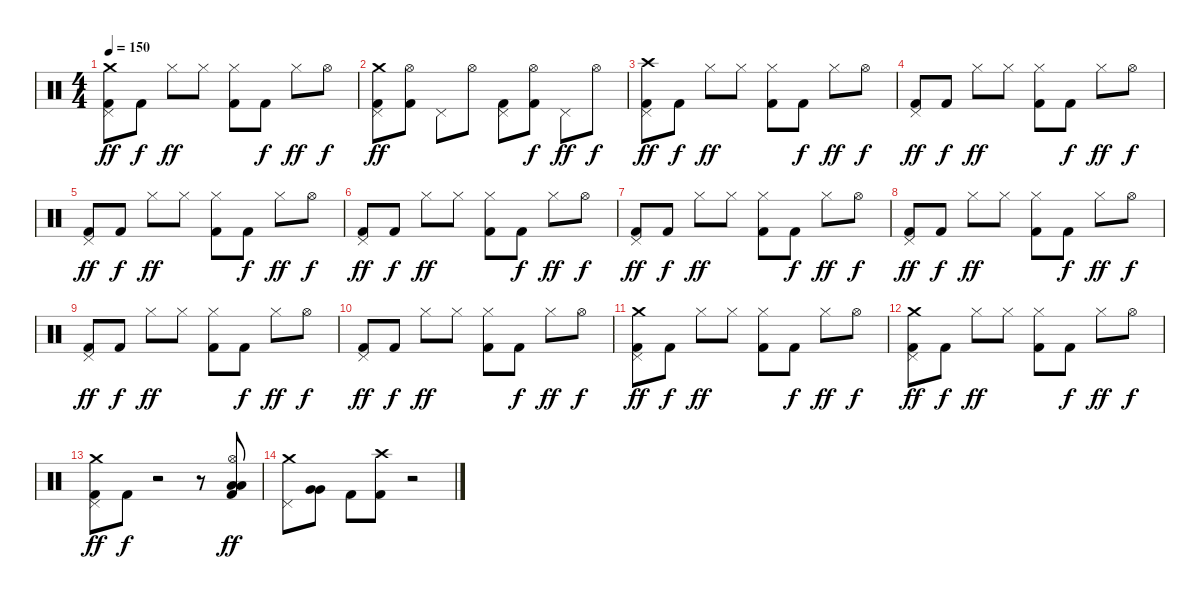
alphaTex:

\track "" {instrument percussion}
\staff {score}
\articulation defaults
\ts (4 4)
\tempo 150
\clef neutral
\ks c
("Crash medium (hit)" "Pedal Hi-Hat (hit)" "Kick (hit) 2").8{dy ff} "Kick (hit) 2".8{dy f} "Hi-Hat (closed)".8{dy ff} "Hi-Hat (closed)".8 ("Hi-Hat (closed)" "Kick (hit) 2").8 "Kick (hit) 2".8{dy f} "Hi-Hat (closed)".8{dy ff} "Hi-Hat (open)".8{dy f} |
("Crash medium (hit)" "Pedal Hi-Hat (hit)" "Kick (hit) 2").8{dy ff} ("Hi-Hat (open)" "Kick (hit) 2").8 "Pedal Hi-Hat (hit)".8 "Hi-Hat (open)".8 ("Pedal Hi-Hat (hit)" "Kick (hit) 2").8 ("Hi-Hat (open)" "Kick (hit) 2").8{dy f} "Pedal Hi-Hat (hit)".8{dy ff} "Hi-Hat (open)".8{dy f} |
("Crash high (hit)" "Pedal Hi-Hat (hit)" "Kick (hit) 2").8{dy ff} "Kick (hit) 2".8{dy f} "Hi-Hat (closed)".8{dy ff} "Hi-Hat (closed)".8 ("Hi-Hat (closed)" "Kick (hit) 2").8 "Kick (hit) 2".8{dy f} "Hi-Hat (closed)".8{dy ff} "Hi-Hat (open)".8{dy f} |
("Pedal Hi-Hat (hit)" "Kick (hit) 2").8{dy ff} "Kick (hit) 2".8{dy f} "Hi-Hat (closed)".8{dy ff} "Hi-Hat (closed)".8 ("Hi-Hat (closed)" "Kick (hit) 2").8 "Kick (hit) 2".8{dy f} "Hi-Hat (closed)".8{dy ff} "Hi-Hat (open)".8{dy f} |
("Pedal Hi-Hat (hit)" "Kick (hit) 2").8{dy ff} "Kick (hit) 2".8{dy f} "Hi-Hat (closed)".8{dy ff} "Hi-Hat (closed)".8 ("Hi-Hat (closed)" "Kick (hit) 2").8 "Kick (hit) 2".8{dy f} "Hi-Hat (closed)".8{dy ff} "Hi-Hat (open)".8{dy f} |
("Pedal Hi-Hat (hit)" "Kick (hit) 2").8{dy ff} "Kick (hit) 2".8{dy f} "Hi-Hat (closed)".8{dy ff} "Hi-Hat (closed)".8 ("Hi-Hat (closed)" "Kick (hit) 2").8 "Kick (hit) 2".8{dy f} "Hi-Hat (closed)".8{dy ff} "Hi-Hat (open)".8{dy f} |
("Pedal Hi-Hat (hit)" "Kick (hit) 2").8{dy ff} "Kick (hit) 2".8{dy f} "Hi-Hat (closed)".8{dy ff} "Hi-Hat (closed)".8 ("Hi-Hat (closed)" "Kick (hit) 2").8 "Kick (hit) 2".8{dy f} "Hi-Hat (closed)".8{dy ff} "Hi-Hat (open)".8{dy f} |
("Pedal Hi-Hat (hit)" "Kick (hit) 2").8{dy ff} "Kick (hit) 2".8{dy f} "Hi-Hat (closed)".8{dy ff} "Hi-Hat (closed)".8 ("Hi-Hat (closed)" "Kick (hit) 2").8 "Kick (hit) 2".8{dy f} "Hi-Hat (closed)".8{dy ff} "Hi-Hat (open)".8{dy f} |
("Pedal Hi-Hat (hit)" "Kick (hit) 2").8{dy ff} "Kick (hit) 2".8{dy f} "Hi-Hat (closed)".8{dy ff} "Hi-Hat (closed)".8 ("Hi-Hat (closed)" "Kick (hit) 2").8 "Kick (hit) 2".8{dy f} "Hi-Hat (closed)".8{dy ff} "Hi-Hat (open)".8{dy f} |
("Pedal Hi-Hat (hit)" "Kick (hit) 2").8{dy ff} "Kick (hit) 2".8{dy f} "Hi-Hat (closed)".8{dy ff} "Hi-Hat (closed)".8 ("Hi-Hat (closed)" "Kick (hit) 2").8 "Kick (hit) 2".8{dy f} "Hi-Hat (closed)".8{dy ff} "Hi-Hat (open)".8{dy f} |
("Crash medium (hit)" "Pedal Hi-Hat (hit)" "Kick (hit) 2").8{dy ff} "Kick (hit) 2".8{dy f} "Hi-Hat (closed)".8{dy ff} "Hi-Hat (closed)".8 ("Hi-Hat (closed)" "Kick (hit) 2").8 "Kick (hit) 2".8{dy f} "Hi-Hat (closed)".8{dy ff} "Hi-Hat (open)".8{dy f} |
("Crash medium (hit)" "Pedal Hi-Hat (hit)" "Kick (hit) 2").8{dy ff} "Kick (hit) 2".8{dy f} "Hi-Hat (closed)".8{dy ff} "Hi-Hat (closed)".8 ("Hi-Hat (closed)" "Kick (hit) 2").8 "Kick (hit) 2".8{dy f} "Hi-Hat (closed)".8{dy ff} "Hi-Hat (open)".8{dy f} |
("Crash medium (hit)" "Pedal Hi-Hat (hit)" "Kick (hit) 2").8{dy ff} "Kick (hit) 2".8{dy f} r.2 r.8 ("Kick (hit) 2" "Low Tom (hit)" "Hi-Hat (open)" "Low Tom (hit)").8{dy ff} |
("Crash medium (hit)" "Pedal Hi-Hat (hit)").8 ("Very Low Tom (hit)" "Very Low Tom (hit)").8 "Kick (hit) 2".8 ("Kick (hit) 2" "Crash high (hit)").8 r.2
